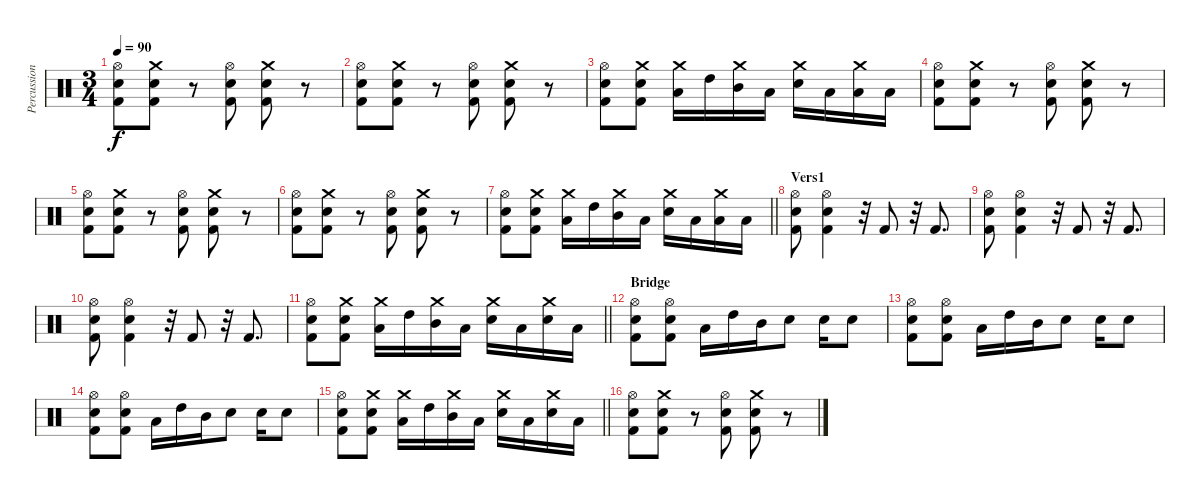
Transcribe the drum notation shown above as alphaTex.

\track ("Percussion" "Percussion") {instrument percussion}
\staff {score}
\articulation defaults
\ts (3 4)
\tempo 90
\clef neutral
\ks c
("Hi-Hat (open)" "Snare (hit) 2" "Kick (hit) 2").8{dy f} ("Crash medium (hit)" "Snare (hit) 2" "Kick (hit) 2").8 r.8 ("Hi-Hat (open)" "Snare (hit) 2" "Kick (hit) 2").8 ("Crash medium (hit)" "Snare (hit) 2" "Kick (hit) 2").8 r.8 |
("Hi-Hat (open)" "Snare (hit) 2" "Kick (hit) 2").8 ("Crash medium (hit)" "Snare (hit) 2" "Kick (hit) 2").8 r.8 ("Hi-Hat (open)" "Snare (hit) 2" "Kick (hit) 2").8 ("Crash medium (hit)" "Snare (hit) 2" "Kick (hit) 2").8 r.8 |
("Hi-Hat (open)" "Snare (hit) 2" "Kick (hit) 2").8 ("Crash medium (hit)" "Snare (hit) 2" "Kick (hit) 2").8 ("Crash medium (hit)" "Low Tom (hit)").16 "High Tom (hit)".16 ("Crash medium (hit)" "Mid Tom (hit)").16 "Low Tom (hit)".16 ("Crash medium (hit)" "Electric Snare (hit)").16 "Low Tom (hit)".16 ("Crash medium (hit)" "Low Tom (hit)").16 "Low Tom (hit)".16 |
("Hi-Hat (open)" "Snare (hit) 2" "Kick (hit) 2").8 ("Crash medium (hit)" "Snare (hit) 2" "Kick (hit) 2").8 r.8 ("Hi-Hat (open)" "Snare (hit) 2" "Kick (hit) 2").8 ("Crash medium (hit)" "Snare (hit) 2" "Kick (hit) 2").8 r.8 |
("Hi-Hat (open)" "Snare (hit) 2" "Kick (hit) 2").8 ("Crash medium (hit)" "Snare (hit) 2" "Kick (hit) 2").8 r.8 ("Hi-Hat (open)" "Snare (hit) 2" "Kick (hit) 2").8 ("Crash medium (hit)" "Snare (hit) 2" "Kick (hit) 2").8 r.8 |
("Hi-Hat (open)" "Snare (hit) 2" "Kick (hit) 2").8 ("Crash medium (hit)" "Snare (hit) 2" "Kick (hit) 2").8 r.8 ("Hi-Hat (open)" "Snare (hit) 2" "Kick (hit) 2").8 ("Crash medium (hit)" "Snare (hit) 2" "Kick (hit) 2").8 r.8 |
\barLineRight lightlight
("Hi-Hat (open)" "Snare (hit) 2" "Kick (hit) 2").8 ("Crash medium (hit)" "Snare (hit) 2" "Kick (hit) 2").8 ("Crash medium (hit)" "Low Tom (hit)").16 "High Tom (hit)".16 ("Crash medium (hit)" "Mid Tom (hit)").16 "Low Tom (hit)".16 ("Crash medium (hit)" "Electric Snare (hit)").16 "Low Tom (hit)".16 ("Crash medium (hit)" "Low Tom (hit)").16 "Low Tom (hit)".16 |
\section ("" "Vers1")
("Hi-Hat (open)" "Snare (hit) 2" "Kick (hit) 2").8 ("Hi-Hat (open)" "Snare (hit) 2" "Kick (hit) 2").4 r.32 "Kick (hit) 2".8 r.32 "Kick (hit) 2".8{d} |
("Hi-Hat (open)" "Snare (hit) 2" "Kick (hit) 2").8 ("Hi-Hat (open)" "Snare (hit) 2" "Kick (hit) 2").4 r.32 "Kick (hit) 2".8 r.32 "Kick (hit) 2".8{d} |
("Hi-Hat (open)" "Snare (hit) 2" "Kick (hit) 2").8 ("Hi-Hat (open)" "Snare (hit) 2" "Kick (hit) 2").4 r.32 "Kick (hit) 2".8 r.32 "Kick (hit) 2".8{d} |
\barLineRight lightlight
("Hi-Hat (open)" "Snare (hit) 2" "Kick (hit) 2").8 ("Crash medium (hit)" "Snare (hit) 2" "Kick (hit) 2").8 ("Crash medium (hit)" "Low Tom (hit)").16 "High Tom (hit)".16 ("Crash medium (hit)" "Mid Tom (hit)").16 "Low Tom (hit)".16 ("Crash medium (hit)" "Electric Snare (hit)").16 "Low Tom (hit)".16 ("Crash medium (hit)" "Snare (hit) 2").16 "Low Tom (hit)".16 |
\section ("" "Bridge")
("Hi-Hat (open)" "Snare (hit) 2" "Kick (hit) 2").8 ("Hi-Hat (open)" "Snare (hit) 2" "Kick (hit) 2").8 "Low Tom (hit)".16 "High Tom (hit)".16 "Mid Tom (hit)".16 "Snare (hit) 2".8 "Snare (hit) 2".16 "Snare (hit) 2".8 |
("Hi-Hat (open)" "Snare (hit) 2" "Kick (hit) 2").8 ("Hi-Hat (open)" "Snare (hit) 2" "Kick (hit) 2").8 "Low Tom (hit)".16 "High Tom (hit)".16 "Mid Tom (hit)".16 "Snare (hit) 2".8 "Snare (hit) 2".16 "Snare (hit) 2".8 |
("Hi-Hat (open)" "Snare (hit) 2" "Kick (hit) 2").8 ("Hi-Hat (open)" "Snare (hit) 2" "Kick (hit) 2").8 "Low Tom (hit)".16 "High Tom (hit)".16 "Mid Tom (hit)".16 "Snare (hit) 2".8 "Snare (hit) 2".16 "Snare (hit) 2".8 |
\barLineRight lightlight
("Hi-Hat (open)" "Snare (hit) 2" "Kick (hit) 2").8 ("Crash medium (hit)" "Snare (hit) 2" "Kick (hit) 2").8 ("Crash medium (hit)" "Low Tom (hit)").16 "High Tom (hit)".16 ("Crash medium (hit)" "Mid Tom (hit)").16 "Low Tom (hit)".16 ("Crash medium (hit)" "Electric Snare (hit)").16 "Low Tom (hit)".16 ("Crash medium (hit)" "Snare (hit) 2").16 "Low Tom (hit)".16 |
("Hi-Hat (open)" "Snare (hit) 2" "Kick (hit) 2").8 ("Crash medium (hit)" "Snare (hit) 2" "Kick (hit) 2").8 r.8 ("Hi-Hat (open)" "Snare (hit) 2" "Kick (hit) 2").8 ("Crash medium (hit)" "Snare (hit) 2" "Kick (hit) 2").8 r.8
